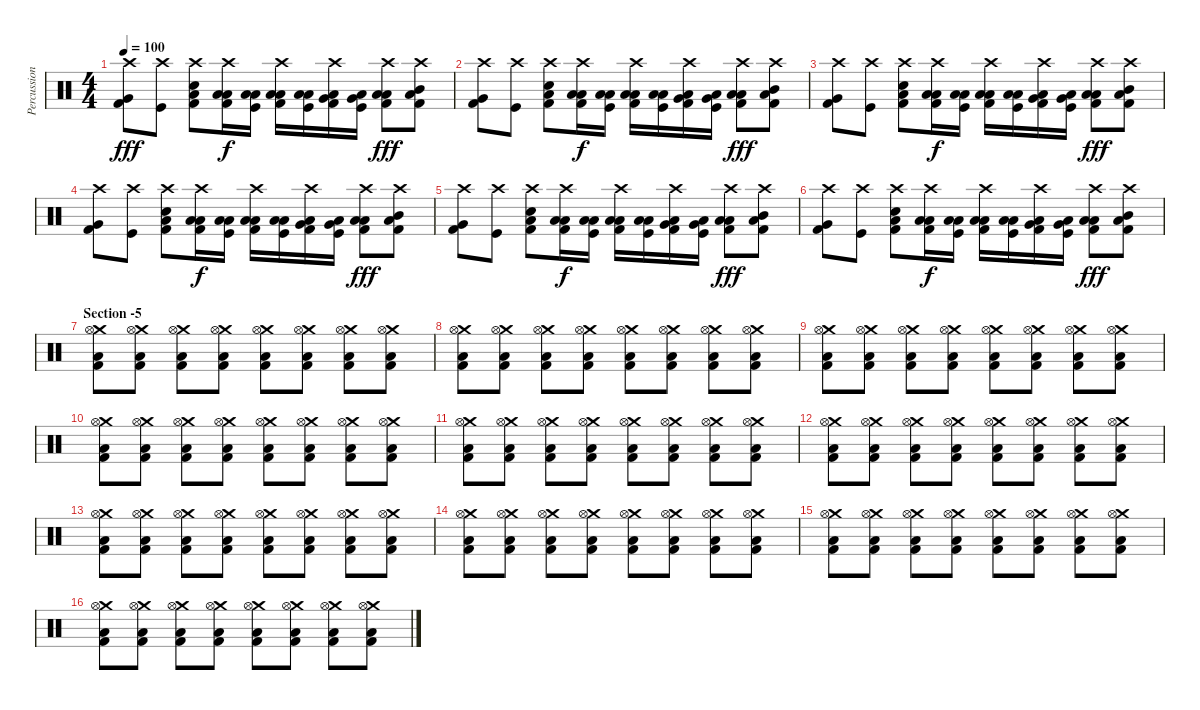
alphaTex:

\track ("Percussion" "Percussion") {instrument percussion}
\staff {score}
\articulation defaults
\ts (4 4)
\tempo 100
\clef neutral
\ks c
("Crash high (hit)" "Kick (hit) 2" "Very Low Tom (hit)").8{dy fff} ("Crash high (hit)" "Kick (hit)").8 ("Crash high (hit)" "Kick (hit) 2" "Low Floor Tom (hit)" "Snare (hit) 2").8 ("Crash high (hit)" "Kick (hit) 2" "Low Floor Tom (hit)" "Low Tom (hit)").16{dy f} ("Kick (hit)" "Low Floor Tom (hit)" "Low Tom (hit)").16 ("Crash high (hit)" "Kick (hit) 2" "Low Floor Tom (hit)" "Low Tom (hit)").16 ("Kick (hit)" "Low Floor Tom (hit)" "Low Tom (hit)").16 ("Crash high (hit)" "Kick (hit) 2" "Low Floor Tom (hit)" "Very Low Tom (hit)").16 ("Kick (hit)" "Low Floor Tom (hit)" "Very Low Tom (hit)").16 ("Crash high (hit)" "Kick (hit) 2" "Low Floor Tom (hit)" "Low Floor Tom (hit)").8{dy fff} ("Crash high (hit)" "Kick (hit) 2" "Low Floor Tom (hit)" "Mid Tom (hit)").8 |
("Crash high (hit)" "Kick (hit) 2" "Very Low Tom (hit)").8 ("Crash high (hit)" "Kick (hit)").8 ("Crash high (hit)" "Kick (hit) 2" "Low Floor Tom (hit)" "Snare (hit) 2").8 ("Crash high (hit)" "Kick (hit) 2" "Low Floor Tom (hit)" "Low Tom (hit)").16{dy f} ("Kick (hit)" "Low Floor Tom (hit)" "Low Tom (hit)").16 ("Crash high (hit)" "Kick (hit) 2" "Low Floor Tom (hit)" "Low Tom (hit)").16 ("Kick (hit)" "Low Floor Tom (hit)" "Low Tom (hit)").16 ("Crash high (hit)" "Kick (hit) 2" "Low Floor Tom (hit)" "Very Low Tom (hit)").16 ("Kick (hit)" "Low Floor Tom (hit)" "Very Low Tom (hit)").16 ("Crash high (hit)" "Kick (hit) 2" "Low Floor Tom (hit)" "Low Floor Tom (hit)").8{dy fff} ("Crash high (hit)" "Kick (hit) 2" "Low Floor Tom (hit)" "Mid Tom (hit)").8 |
("Crash high (hit)" "Kick (hit) 2" "Very Low Tom (hit)").8 ("Crash high (hit)" "Kick (hit)").8 ("Crash high (hit)" "Kick (hit) 2" "Low Floor Tom (hit)" "Snare (hit) 2").8 ("Crash high (hit)" "Kick (hit) 2" "Low Floor Tom (hit)" "Low Tom (hit)").16{dy f} ("Kick (hit)" "Low Floor Tom (hit)" "Low Tom (hit)").16 ("Crash high (hit)" "Kick (hit) 2" "Low Floor Tom (hit)" "Low Tom (hit)").16 ("Kick (hit)" "Low Floor Tom (hit)" "Low Tom (hit)").16 ("Crash high (hit)" "Kick (hit) 2" "Low Floor Tom (hit)" "Very Low Tom (hit)").16 ("Kick (hit)" "Low Floor Tom (hit)" "Very Low Tom (hit)").16 ("Crash high (hit)" "Kick (hit) 2" "Low Floor Tom (hit)" "Low Floor Tom (hit)").8{dy fff} ("Crash high (hit)" "Kick (hit) 2" "Low Floor Tom (hit)" "Mid Tom (hit)").8 |
("Crash high (hit)" "Kick (hit) 2" "Very Low Tom (hit)").8 ("Crash high (hit)" "Kick (hit)").8 ("Crash high (hit)" "Kick (hit) 2" "Low Floor Tom (hit)" "Snare (hit) 2").8 ("Crash high (hit)" "Kick (hit) 2" "Low Floor Tom (hit)" "Low Tom (hit)").16{dy f} ("Kick (hit)" "Low Floor Tom (hit)" "Low Tom (hit)").16 ("Crash high (hit)" "Kick (hit) 2" "Low Floor Tom (hit)" "Low Tom (hit)").16 ("Kick (hit)" "Low Floor Tom (hit)" "Low Tom (hit)").16 ("Crash high (hit)" "Kick (hit) 2" "Low Floor Tom (hit)" "Very Low Tom (hit)").16 ("Kick (hit)" "Low Floor Tom (hit)" "Very Low Tom (hit)").16 ("Crash high (hit)" "Kick (hit) 2" "Low Floor Tom (hit)" "Low Floor Tom (hit)").8{dy fff} ("Crash high (hit)" "Kick (hit) 2" "Low Floor Tom (hit)" "Mid Tom (hit)").8 |
("Crash high (hit)" "Kick (hit) 2" "Very Low Tom (hit)").8 ("Crash high (hit)" "Kick (hit)").8 ("Crash high (hit)" "Kick (hit) 2" "Low Floor Tom (hit)" "Snare (hit) 2").8 ("Crash high (hit)" "Kick (hit) 2" "Low Floor Tom (hit)" "Low Tom (hit)").16{dy f} ("Kick (hit)" "Low Floor Tom (hit)" "Low Tom (hit)").16 ("Crash high (hit)" "Kick (hit) 2" "Low Floor Tom (hit)" "Low Tom (hit)").16 ("Kick (hit)" "Low Floor Tom (hit)" "Low Tom (hit)").16 ("Crash high (hit)" "Kick (hit) 2" "Low Floor Tom (hit)" "Very Low Tom (hit)").16 ("Kick (hit)" "Low Floor Tom (hit)" "Very Low Tom (hit)").16 ("Crash high (hit)" "Kick (hit) 2" "Low Floor Tom (hit)" "Low Floor Tom (hit)").8{dy fff} ("Crash high (hit)" "Kick (hit) 2" "Low Floor Tom (hit)" "Mid Tom (hit)").8 |
("Crash high (hit)" "Kick (hit) 2" "Very Low Tom (hit)").8 ("Crash high (hit)" "Kick (hit)").8 ("Crash high (hit)" "Kick (hit) 2" "Low Floor Tom (hit)" "Snare (hit) 2").8 ("Crash high (hit)" "Kick (hit) 2" "Low Floor Tom (hit)" "Low Tom (hit)").16{dy f} ("Kick (hit)" "Low Floor Tom (hit)" "Low Tom (hit)").16 ("Crash high (hit)" "Kick (hit) 2" "Low Floor Tom (hit)" "Low Tom (hit)").16 ("Kick (hit)" "Low Floor Tom (hit)" "Low Tom (hit)").16 ("Crash high (hit)" "Kick (hit) 2" "Low Floor Tom (hit)" "Very Low Tom (hit)").16 ("Kick (hit)" "Low Floor Tom (hit)" "Very Low Tom (hit)").16 ("Crash high (hit)" "Kick (hit) 2" "Low Floor Tom (hit)" "Low Floor Tom (hit)").8{dy fff} ("Crash high (hit)" "Kick (hit) 2" "Low Floor Tom (hit)" "Mid Tom (hit)").8 |
\section ("" "Section -5")
("Crash medium (hit)" "Kick (hit) 2" "Low Floor Tom (hit)" "Hi-Hat (open)").8{volume 16 balance 11} ("Crash medium (hit)" "Kick (hit) 2" "Low Floor Tom (hit)" "Hi-Hat (open)").8 ("Crash medium (hit)" "Kick (hit) 2" "Low Floor Tom (hit)" "Hi-Hat (open)").8 ("Crash medium (hit)" "Kick (hit) 2" "Low Floor Tom (hit)" "Hi-Hat (open)").8 ("Crash medium (hit)" "Kick (hit) 2" "Low Floor Tom (hit)" "Hi-Hat (open)").8 ("Crash medium (hit)" "Kick (hit) 2" "Low Floor Tom (hit)" "Hi-Hat (open)").8 ("Crash medium (hit)" "Kick (hit) 2" "Low Floor Tom (hit)" "Hi-Hat (open)").8 ("Crash medium (hit)" "Kick (hit) 2" "Low Floor Tom (hit)" "Hi-Hat (open)").8 |
("Crash medium (hit)" "Kick (hit) 2" "Low Floor Tom (hit)" "Hi-Hat (open)").8{volume 16 balance 11} ("Crash medium (hit)" "Kick (hit) 2" "Low Floor Tom (hit)" "Hi-Hat (open)").8 ("Crash medium (hit)" "Kick (hit) 2" "Low Floor Tom (hit)" "Hi-Hat (open)").8 ("Crash medium (hit)" "Kick (hit) 2" "Low Floor Tom (hit)" "Hi-Hat (open)").8 ("Crash medium (hit)" "Kick (hit) 2" "Low Floor Tom (hit)" "Hi-Hat (open)").8 ("Crash medium (hit)" "Kick (hit) 2" "Low Floor Tom (hit)" "Hi-Hat (open)").8 ("Crash medium (hit)" "Kick (hit) 2" "Low Floor Tom (hit)" "Hi-Hat (open)").8 ("Crash medium (hit)" "Kick (hit) 2" "Low Floor Tom (hit)" "Hi-Hat (open)").8 |
("Crash medium (hit)" "Kick (hit) 2" "Low Floor Tom (hit)" "Hi-Hat (open)").8{volume 16 balance 11} ("Crash medium (hit)" "Kick (hit) 2" "Low Floor Tom (hit)" "Hi-Hat (open)").8 ("Crash medium (hit)" "Kick (hit) 2" "Low Floor Tom (hit)" "Hi-Hat (open)").8 ("Crash medium (hit)" "Kick (hit) 2" "Low Floor Tom (hit)" "Hi-Hat (open)").8 ("Crash medium (hit)" "Kick (hit) 2" "Low Floor Tom (hit)" "Hi-Hat (open)").8 ("Crash medium (hit)" "Kick (hit) 2" "Low Floor Tom (hit)" "Hi-Hat (open)").8 ("Crash medium (hit)" "Kick (hit) 2" "Low Floor Tom (hit)" "Hi-Hat (open)").8 ("Crash medium (hit)" "Kick (hit) 2" "Low Floor Tom (hit)" "Hi-Hat (open)").8 |
("Crash medium (hit)" "Kick (hit) 2" "Low Floor Tom (hit)" "Hi-Hat (open)").8{volume 16 balance 11} ("Crash medium (hit)" "Kick (hit) 2" "Low Floor Tom (hit)" "Hi-Hat (open)").8 ("Crash medium (hit)" "Kick (hit) 2" "Low Floor Tom (hit)" "Hi-Hat (open)").8 ("Crash medium (hit)" "Kick (hit) 2" "Low Floor Tom (hit)" "Hi-Hat (open)").8 ("Crash medium (hit)" "Kick (hit) 2" "Low Floor Tom (hit)" "Hi-Hat (open)").8 ("Crash medium (hit)" "Kick (hit) 2" "Low Floor Tom (hit)" "Hi-Hat (open)").8 ("Crash medium (hit)" "Kick (hit) 2" "Low Floor Tom (hit)" "Hi-Hat (open)").8 ("Crash medium (hit)" "Kick (hit) 2" "Low Floor Tom (hit)" "Hi-Hat (open)").8 |
("Crash medium (hit)" "Kick (hit) 2" "Low Floor Tom (hit)" "Hi-Hat (open)").8{volume 16 balance 11} ("Crash medium (hit)" "Kick (hit) 2" "Low Floor Tom (hit)" "Hi-Hat (open)").8 ("Crash medium (hit)" "Kick (hit) 2" "Low Floor Tom (hit)" "Hi-Hat (open)").8 ("Crash medium (hit)" "Kick (hit) 2" "Low Floor Tom (hit)" "Hi-Hat (open)").8 ("Crash medium (hit)" "Kick (hit) 2" "Low Floor Tom (hit)" "Hi-Hat (open)").8 ("Crash medium (hit)" "Kick (hit) 2" "Low Floor Tom (hit)" "Hi-Hat (open)").8 ("Crash medium (hit)" "Kick (hit) 2" "Low Floor Tom (hit)" "Hi-Hat (open)").8 ("Crash medium (hit)" "Kick (hit) 2" "Low Floor Tom (hit)" "Hi-Hat (open)").8 |
("Crash medium (hit)" "Kick (hit) 2" "Low Floor Tom (hit)" "Hi-Hat (open)").8{volume 16 balance 11} ("Crash medium (hit)" "Kick (hit) 2" "Low Floor Tom (hit)" "Hi-Hat (open)").8 ("Crash medium (hit)" "Kick (hit) 2" "Low Floor Tom (hit)" "Hi-Hat (open)").8 ("Crash medium (hit)" "Kick (hit) 2" "Low Floor Tom (hit)" "Hi-Hat (open)").8 ("Crash medium (hit)" "Kick (hit) 2" "Low Floor Tom (hit)" "Hi-Hat (open)").8 ("Crash medium (hit)" "Kick (hit) 2" "Low Floor Tom (hit)" "Hi-Hat (open)").8 ("Crash medium (hit)" "Kick (hit) 2" "Low Floor Tom (hit)" "Hi-Hat (open)").8 ("Crash medium (hit)" "Kick (hit) 2" "Low Floor Tom (hit)" "Hi-Hat (open)").8 |
("Crash medium (hit)" "Kick (hit) 2" "Low Floor Tom (hit)" "Hi-Hat (open)").8{volume 16 balance 11} ("Crash medium (hit)" "Kick (hit) 2" "Low Floor Tom (hit)" "Hi-Hat (open)").8 ("Crash medium (hit)" "Kick (hit) 2" "Low Floor Tom (hit)" "Hi-Hat (open)").8 ("Crash medium (hit)" "Kick (hit) 2" "Low Floor Tom (hit)" "Hi-Hat (open)").8 ("Crash medium (hit)" "Kick (hit) 2" "Low Floor Tom (hit)" "Hi-Hat (open)").8 ("Crash medium (hit)" "Kick (hit) 2" "Low Floor Tom (hit)" "Hi-Hat (open)").8 ("Crash medium (hit)" "Kick (hit) 2" "Low Floor Tom (hit)" "Hi-Hat (open)").8 ("Crash medium (hit)" "Kick (hit) 2" "Low Floor Tom (hit)" "Hi-Hat (open)").8 |
("Crash medium (hit)" "Kick (hit) 2" "Low Floor Tom (hit)" "Hi-Hat (open)").8{volume 16 balance 11} ("Crash medium (hit)" "Kick (hit) 2" "Low Floor Tom (hit)" "Hi-Hat (open)").8 ("Crash medium (hit)" "Kick (hit) 2" "Low Floor Tom (hit)" "Hi-Hat (open)").8 ("Crash medium (hit)" "Kick (hit) 2" "Low Floor Tom (hit)" "Hi-Hat (open)").8 ("Crash medium (hit)" "Kick (hit) 2" "Low Floor Tom (hit)" "Hi-Hat (open)").8 ("Crash medium (hit)" "Kick (hit) 2" "Low Floor Tom (hit)" "Hi-Hat (open)").8 ("Crash medium (hit)" "Kick (hit) 2" "Low Floor Tom (hit)" "Hi-Hat (open)").8 ("Crash medium (hit)" "Kick (hit) 2" "Low Floor Tom (hit)" "Hi-Hat (open)").8 |
("Crash medium (hit)" "Kick (hit) 2" "Low Floor Tom (hit)" "Hi-Hat (open)").8{volume 16 balance 11} ("Crash medium (hit)" "Kick (hit) 2" "Low Floor Tom (hit)" "Hi-Hat (open)").8 ("Crash medium (hit)" "Kick (hit) 2" "Low Floor Tom (hit)" "Hi-Hat (open)").8 ("Crash medium (hit)" "Kick (hit) 2" "Low Floor Tom (hit)" "Hi-Hat (open)").8 ("Crash medium (hit)" "Kick (hit) 2" "Low Floor Tom (hit)" "Hi-Hat (open)").8 ("Crash medium (hit)" "Kick (hit) 2" "Low Floor Tom (hit)" "Hi-Hat (open)").8 ("Crash medium (hit)" "Kick (hit) 2" "Low Floor Tom (hit)" "Hi-Hat (open)").8 ("Crash medium (hit)" "Kick (hit) 2" "Low Floor Tom (hit)" "Hi-Hat (open)").8 |
("Crash medium (hit)" "Kick (hit) 2" "Low Floor Tom (hit)" "Hi-Hat (open)").8{volume 16 balance 11} ("Crash medium (hit)" "Kick (hit) 2" "Low Floor Tom (hit)" "Hi-Hat (open)").8 ("Crash medium (hit)" "Kick (hit) 2" "Low Floor Tom (hit)" "Hi-Hat (open)").8 ("Crash medium (hit)" "Kick (hit) 2" "Low Floor Tom (hit)" "Hi-Hat (open)").8 ("Crash medium (hit)" "Kick (hit) 2" "Low Floor Tom (hit)" "Hi-Hat (open)").8 ("Crash medium (hit)" "Kick (hit) 2" "Low Floor Tom (hit)" "Hi-Hat (open)").8 ("Crash medium (hit)" "Kick (hit) 2" "Low Floor Tom (hit)" "Hi-Hat (open)").8 ("Crash medium (hit)" "Kick (hit) 2" "Low Floor Tom (hit)" "Hi-Hat (open)").8
